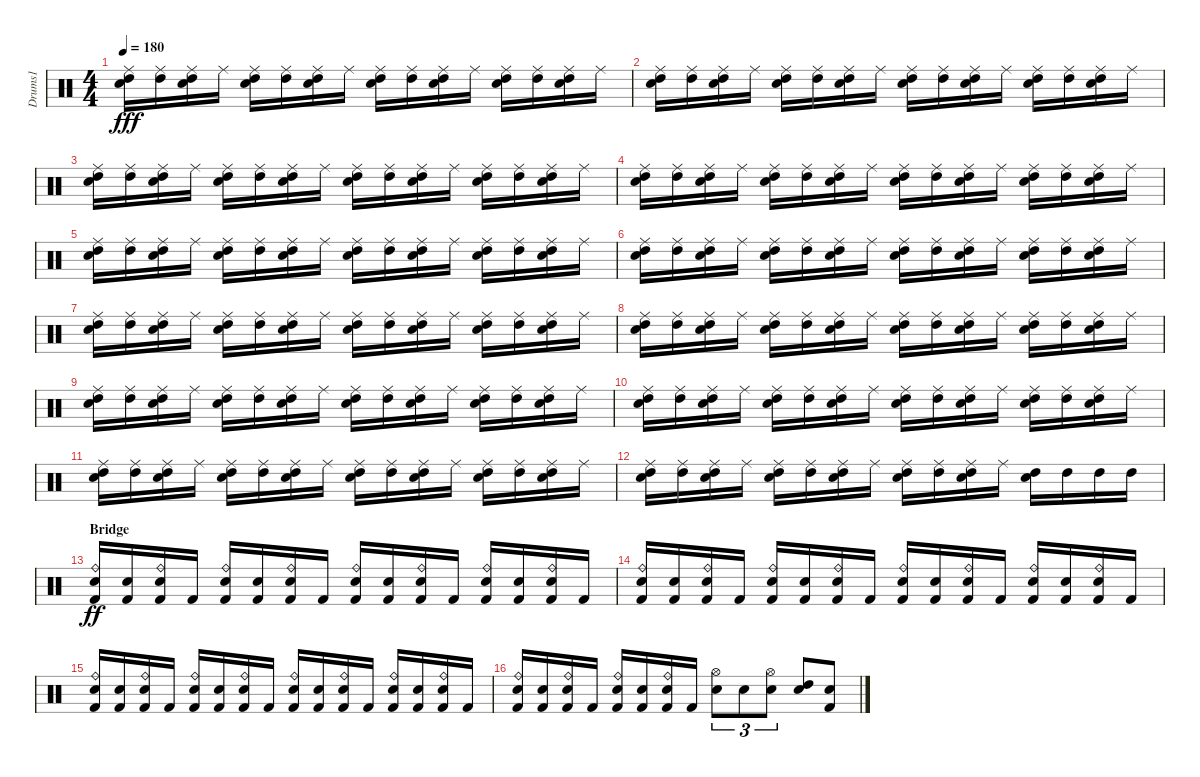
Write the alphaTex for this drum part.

\track ("Drums1" "Drums1") {instrument percussion}
\staff {score}
\articulation defaults
\ts (4 4)
\tempo 180
\clef neutral
\ks c
("Electric Snare (hit)" "Ride (middle)" "High Tom (hit)").16{dy fff} ("Ride (middle)" "High Tom (hit)").16 ("Electric Snare (hit)" "Ride (middle)" "High Tom (hit)").16 "Ride (middle)".16 ("Electric Snare (hit)" "Ride (middle)" "High Tom (hit)").16 ("Ride (middle)" "High Tom (hit)").16 ("Electric Snare (hit)" "Ride (middle)" "High Tom (hit)").16 "Ride (middle)".16 ("Electric Snare (hit)" "Ride (middle)" "High Tom (hit)").16 ("Ride (middle)" "High Tom (hit)").16 ("Electric Snare (hit)" "Ride (middle)" "High Tom (hit)").16 "Ride (middle)".16 ("Electric Snare (hit)" "Ride (middle)" "High Tom (hit)").16 ("Ride (middle)" "High Tom (hit)").16 ("Electric Snare (hit)" "Ride (middle)" "High Tom (hit)").16 "Ride (middle)".16 |
("Electric Snare (hit)" "Ride (middle)" "High Tom (hit)").16 ("Ride (middle)" "High Tom (hit)").16 ("Electric Snare (hit)" "Ride (middle)" "High Tom (hit)").16 "Ride (middle)".16 ("Electric Snare (hit)" "Ride (middle)" "High Tom (hit)").16 ("Ride (middle)" "High Tom (hit)").16 ("Electric Snare (hit)" "Ride (middle)" "High Tom (hit)").16 "Ride (middle)".16 ("Electric Snare (hit)" "Ride (middle)" "High Tom (hit)").16 ("Ride (middle)" "High Tom (hit)").16 ("Electric Snare (hit)" "Ride (middle)" "High Tom (hit)").16 "Ride (middle)".16 ("Electric Snare (hit)" "Ride (middle)" "High Tom (hit)").16 ("Ride (middle)" "High Tom (hit)").16 ("Electric Snare (hit)" "Ride (middle)" "High Tom (hit)").16 "Ride (middle)".16 |
("Electric Snare (hit)" "Ride (middle)" "High Tom (hit)").16 ("Ride (middle)" "High Tom (hit)").16 ("Electric Snare (hit)" "Ride (middle)" "High Tom (hit)").16 "Ride (middle)".16 ("Electric Snare (hit)" "Ride (middle)" "High Tom (hit)").16 ("Ride (middle)" "High Tom (hit)").16 ("Electric Snare (hit)" "Ride (middle)" "High Tom (hit)").16 "Ride (middle)".16 ("Electric Snare (hit)" "Ride (middle)" "High Tom (hit)").16 ("Ride (middle)" "High Tom (hit)").16 ("Electric Snare (hit)" "Ride (middle)" "High Tom (hit)").16 "Ride (middle)".16 ("Electric Snare (hit)" "Ride (middle)" "High Tom (hit)").16 ("Ride (middle)" "High Tom (hit)").16 ("Electric Snare (hit)" "Ride (middle)" "High Tom (hit)").16 "Ride (middle)".16 |
("Electric Snare (hit)" "Ride (middle)" "High Tom (hit)").16 ("Ride (middle)" "High Tom (hit)").16 ("Electric Snare (hit)" "Ride (middle)" "High Tom (hit)").16 "Ride (middle)".16 ("Electric Snare (hit)" "Ride (middle)" "High Tom (hit)").16 ("Ride (middle)" "High Tom (hit)").16 ("Electric Snare (hit)" "Ride (middle)" "High Tom (hit)").16 "Ride (middle)".16 ("Electric Snare (hit)" "Ride (middle)" "High Tom (hit)").16 ("Ride (middle)" "High Tom (hit)").16 ("Electric Snare (hit)" "Ride (middle)" "High Tom (hit)").16 "Ride (middle)".16 ("Electric Snare (hit)" "Ride (middle)" "High Tom (hit)").16 ("Ride (middle)" "High Tom (hit)").16 ("Electric Snare (hit)" "Ride (middle)" "High Tom (hit)").16 "Ride (middle)".16 |
("Electric Snare (hit)" "Ride (middle)" "High Tom (hit)").16 ("Ride (middle)" "High Tom (hit)").16 ("Electric Snare (hit)" "Ride (middle)" "High Tom (hit)").16 "Ride (middle)".16 ("Electric Snare (hit)" "Ride (middle)" "High Tom (hit)").16 ("Ride (middle)" "High Tom (hit)").16 ("Electric Snare (hit)" "Ride (middle)" "High Tom (hit)").16 "Ride (middle)".16 ("Electric Snare (hit)" "Ride (middle)" "High Tom (hit)").16 ("Ride (middle)" "High Tom (hit)").16 ("Electric Snare (hit)" "Ride (middle)" "High Tom (hit)").16 "Ride (middle)".16 ("Electric Snare (hit)" "Ride (middle)" "High Tom (hit)").16 ("Ride (middle)" "High Tom (hit)").16 ("Electric Snare (hit)" "Ride (middle)" "High Tom (hit)").16 "Ride (middle)".16 |
("Electric Snare (hit)" "Ride (middle)" "High Tom (hit)").16 ("Ride (middle)" "High Tom (hit)").16 ("Electric Snare (hit)" "Ride (middle)" "High Tom (hit)").16 "Ride (middle)".16 ("Electric Snare (hit)" "Ride (middle)" "High Tom (hit)").16 ("Ride (middle)" "High Tom (hit)").16 ("Electric Snare (hit)" "Ride (middle)" "High Tom (hit)").16 "Ride (middle)".16 ("Electric Snare (hit)" "Ride (middle)" "High Tom (hit)").16 ("Ride (middle)" "High Tom (hit)").16 ("Electric Snare (hit)" "Ride (middle)" "High Tom (hit)").16 "Ride (middle)".16 ("Electric Snare (hit)" "Ride (middle)" "High Tom (hit)").16 ("Ride (middle)" "High Tom (hit)").16 ("Electric Snare (hit)" "Ride (middle)" "High Tom (hit)").16 "Ride (middle)".16 |
("Electric Snare (hit)" "Ride (middle)" "High Tom (hit)").16 ("Ride (middle)" "High Tom (hit)").16 ("Electric Snare (hit)" "Ride (middle)" "High Tom (hit)").16 "Ride (middle)".16 ("Electric Snare (hit)" "Ride (middle)" "High Tom (hit)").16 ("Ride (middle)" "High Tom (hit)").16 ("Electric Snare (hit)" "Ride (middle)" "High Tom (hit)").16 "Ride (middle)".16 ("Electric Snare (hit)" "Ride (middle)" "High Tom (hit)").16 ("Ride (middle)" "High Tom (hit)").16 ("Electric Snare (hit)" "Ride (middle)" "High Tom (hit)").16 "Ride (middle)".16 ("Electric Snare (hit)" "Ride (middle)" "High Tom (hit)").16 ("Ride (middle)" "High Tom (hit)").16 ("Electric Snare (hit)" "Ride (middle)" "High Tom (hit)").16 "Ride (middle)".16 |
("Electric Snare (hit)" "Ride (middle)" "High Tom (hit)").16 ("Ride (middle)" "High Tom (hit)").16 ("Electric Snare (hit)" "Ride (middle)" "High Tom (hit)").16 "Ride (middle)".16 ("Electric Snare (hit)" "Ride (middle)" "High Tom (hit)").16 ("Ride (middle)" "High Tom (hit)").16 ("Electric Snare (hit)" "Ride (middle)" "High Tom (hit)").16 "Ride (middle)".16 ("Electric Snare (hit)" "Ride (middle)" "High Tom (hit)").16 ("Ride (middle)" "High Tom (hit)").16 ("Electric Snare (hit)" "Ride (middle)" "High Tom (hit)").16 "Ride (middle)".16 ("Electric Snare (hit)" "Ride (middle)" "High Tom (hit)").16 ("Ride (middle)" "High Tom (hit)").16 ("Electric Snare (hit)" "Ride (middle)" "High Tom (hit)").16 "Ride (middle)".16 |
("Electric Snare (hit)" "Ride (middle)" "High Tom (hit)").16 ("Ride (middle)" "High Tom (hit)").16 ("Electric Snare (hit)" "Ride (middle)" "High Tom (hit)").16 "Ride (middle)".16 ("Electric Snare (hit)" "Ride (middle)" "High Tom (hit)").16 ("Ride (middle)" "High Tom (hit)").16 ("Electric Snare (hit)" "Ride (middle)" "High Tom (hit)").16 "Ride (middle)".16 ("Electric Snare (hit)" "Ride (middle)" "High Tom (hit)").16 ("Ride (middle)" "High Tom (hit)").16 ("Electric Snare (hit)" "Ride (middle)" "High Tom (hit)").16 "Ride (middle)".16 ("Electric Snare (hit)" "Ride (middle)" "High Tom (hit)").16 ("Ride (middle)" "High Tom (hit)").16 ("Electric Snare (hit)" "Ride (middle)" "High Tom (hit)").16 "Ride (middle)".16 |
("Electric Snare (hit)" "Ride (middle)" "High Tom (hit)").16 ("Ride (middle)" "High Tom (hit)").16 ("Electric Snare (hit)" "Ride (middle)" "High Tom (hit)").16 "Ride (middle)".16 ("Electric Snare (hit)" "Ride (middle)" "High Tom (hit)").16 ("Ride (middle)" "High Tom (hit)").16 ("Electric Snare (hit)" "Ride (middle)" "High Tom (hit)").16 "Ride (middle)".16 ("Electric Snare (hit)" "Ride (middle)" "High Tom (hit)").16 ("Ride (middle)" "High Tom (hit)").16 ("Electric Snare (hit)" "Ride (middle)" "High Tom (hit)").16 "Ride (middle)".16 ("Electric Snare (hit)" "Ride (middle)" "High Tom (hit)").16 ("Ride (middle)" "High Tom (hit)").16 ("Electric Snare (hit)" "Ride (middle)" "High Tom (hit)").16 "Ride (middle)".16 |
("Electric Snare (hit)" "Ride (middle)" "High Tom (hit)").16 ("Ride (middle)" "High Tom (hit)").16 ("Electric Snare (hit)" "Ride (middle)" "High Tom (hit)").16 "Ride (middle)".16 ("Electric Snare (hit)" "Ride (middle)" "High Tom (hit)").16 ("Ride (middle)" "High Tom (hit)").16 ("Electric Snare (hit)" "Ride (middle)" "High Tom (hit)").16 "Ride (middle)".16 ("Electric Snare (hit)" "Ride (middle)" "High Tom (hit)").16 ("Ride (middle)" "High Tom (hit)").16 ("Electric Snare (hit)" "Ride (middle)" "High Tom (hit)").16 "Ride (middle)".16 ("Electric Snare (hit)" "Ride (middle)" "High Tom (hit)").16 ("Ride (middle)" "High Tom (hit)").16 ("Electric Snare (hit)" "Ride (middle)" "High Tom (hit)").16 "Ride (middle)".16 |
("Electric Snare (hit)" "Ride (middle)" "High Tom (hit)").16 ("Ride (middle)" "High Tom (hit)").16 ("Electric Snare (hit)" "Ride (middle)" "High Tom (hit)").16 "Ride (middle)".16 ("Electric Snare (hit)" "Ride (middle)" "High Tom (hit)").16 ("Ride (middle)" "High Tom (hit)").16 ("Electric Snare (hit)" "Ride (middle)" "High Tom (hit)").16 "Ride (middle)".16 ("Electric Snare (hit)" "Ride (middle)" "High Tom (hit)").16 ("Ride (middle)" "High Tom (hit)").16 ("Electric Snare (hit)" "Ride (middle)" "High Tom (hit)").16 "Ride (middle)".16 ("Electric Snare (hit)" "High Tom (hit)").16 "High Tom (hit)".16 "High Tom (hit)".16 "High Tom (hit)".16 |
\section ("" "Bridge")
("Ride (bell)" "Electric Snare (hit)" "Kick (hit) 2").16{dy ff} ("Electric Snare (hit)" "Kick (hit) 2").16 ("Ride (bell)" "Electric Snare (hit)" "Kick (hit) 2").16 "Kick (hit) 2".16 ("Ride (bell)" "Electric Snare (hit)" "Kick (hit) 2").16 ("Electric Snare (hit)" "Kick (hit) 2").16 ("Ride (bell)" "Electric Snare (hit)" "Kick (hit) 2").16 "Kick (hit) 2".16 ("Ride (bell)" "Electric Snare (hit)" "Kick (hit) 2").16 ("Electric Snare (hit)" "Kick (hit) 2").16 ("Ride (bell)" "Electric Snare (hit)" "Kick (hit) 2").16 "Kick (hit) 2".16 ("Ride (bell)" "Electric Snare (hit)" "Kick (hit) 2").16 ("Electric Snare (hit)" "Kick (hit) 2").16 ("Ride (bell)" "Electric Snare (hit)" "Kick (hit) 2").16 "Kick (hit) 2".16 |
("Ride (bell)" "Electric Snare (hit)" "Kick (hit) 2").16 ("Electric Snare (hit)" "Kick (hit) 2").16 ("Ride (bell)" "Electric Snare (hit)" "Kick (hit) 2").16 "Kick (hit) 2".16 ("Ride (bell)" "Electric Snare (hit)" "Kick (hit) 2").16 ("Electric Snare (hit)" "Kick (hit) 2").16 ("Ride (bell)" "Electric Snare (hit)" "Kick (hit) 2").16 "Kick (hit) 2".16 ("Ride (bell)" "Electric Snare (hit)" "Kick (hit) 2").16 ("Electric Snare (hit)" "Kick (hit) 2").16 ("Ride (bell)" "Electric Snare (hit)" "Kick (hit) 2").16 "Kick (hit) 2".16 ("Ride (bell)" "Electric Snare (hit)" "Kick (hit) 2").16 ("Electric Snare (hit)" "Kick (hit) 2").16 ("Ride (bell)" "Electric Snare (hit)" "Kick (hit) 2").16 "Kick (hit) 2".16 |
("Ride (bell)" "Electric Snare (hit)" "Kick (hit) 2").16 ("Electric Snare (hit)" "Kick (hit) 2").16 ("Ride (bell)" "Electric Snare (hit)" "Kick (hit) 2").16 "Kick (hit) 2".16 ("Ride (bell)" "Electric Snare (hit)" "Kick (hit) 2").16 ("Electric Snare (hit)" "Kick (hit) 2").16 ("Ride (bell)" "Electric Snare (hit)" "Kick (hit) 2").16 "Kick (hit) 2".16 ("Ride (bell)" "Electric Snare (hit)" "Kick (hit) 2").16 ("Electric Snare (hit)" "Kick (hit) 2").16 ("Ride (bell)" "Electric Snare (hit)" "Kick (hit) 2").16 "Kick (hit) 2".16 ("Ride (bell)" "Electric Snare (hit)" "Kick (hit) 2").16 ("Electric Snare (hit)" "Kick (hit) 2").16 ("Ride (bell)" "Electric Snare (hit)" "Kick (hit) 2").16 "Kick (hit) 2".16 |
("Ride (bell)" "Electric Snare (hit)" "Kick (hit) 2").16 ("Electric Snare (hit)" "Kick (hit) 2").16 ("Ride (bell)" "Electric Snare (hit)" "Kick (hit) 2").16 "Kick (hit) 2".16 ("Ride (bell)" "Electric Snare (hit)" "Kick (hit) 2").16 ("Electric Snare (hit)" "Kick (hit) 2").16 ("Ride (bell)" "Electric Snare (hit)" "Kick (hit) 2").16 "Kick (hit) 2".16 ("Hi-Hat (open)" "Electric Snare (hit)").8{tu (3 2)} "Electric Snare (hit)".8{tu (3 2)} ("Hi-Hat (open)" "Electric Snare (hit)").8{tu (3 2)} ("High Tom (hit)" "Electric Snare (hit)").8 ("Kick (hit) 2" "Electric Snare (hit)").8
